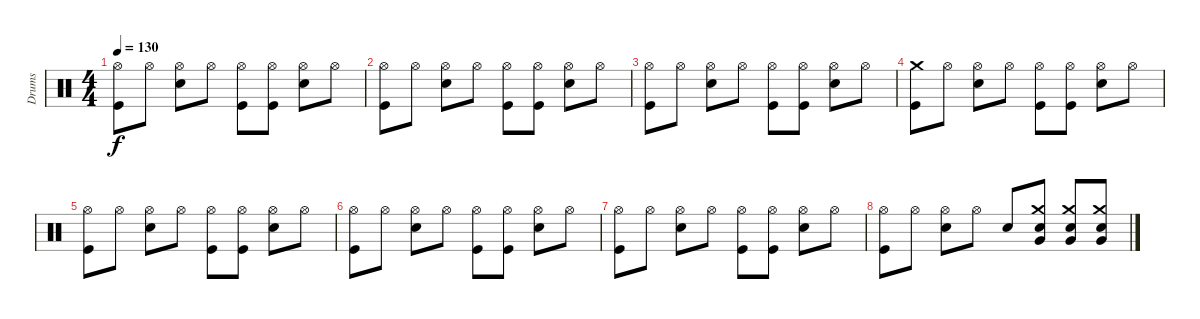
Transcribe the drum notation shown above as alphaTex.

\track ("Drums" "Drums") {instrument percussion}
\staff {score}
\articulation defaults
\ts (4 4)
\tempo 130
\clef neutral
\ks c
("Hi-Hat (open)" "Kick (hit)").8{dy f} "Hi-Hat (open)".8 ("Hi-Hat (open)" "Snare (hit) 2").8 "Hi-Hat (open)".8 ("Hi-Hat (open)" "Kick (hit)").8 ("Hi-Hat (open)" "Kick (hit)").8 ("Hi-Hat (open)" "Snare (hit) 2").8 "Hi-Hat (open)".8 |
("Hi-Hat (open)" "Kick (hit)").8 "Hi-Hat (open)".8 ("Hi-Hat (open)" "Snare (hit) 2").8 "Hi-Hat (open)".8 ("Hi-Hat (open)" "Kick (hit)").8 ("Hi-Hat (open)" "Kick (hit)").8 ("Hi-Hat (open)" "Snare (hit) 2").8 "Hi-Hat (open)".8 |
("Hi-Hat (open)" "Kick (hit)").8 "Hi-Hat (open)".8 ("Hi-Hat (open)" "Snare (hit) 2").8 "Hi-Hat (open)".8 ("Hi-Hat (open)" "Kick (hit)").8 ("Hi-Hat (open)" "Kick (hit)").8 ("Hi-Hat (open)" "Snare (hit) 2").8 "Hi-Hat (open)".8 |
("Crash medium (hit)" "Kick (hit)").8 "Hi-Hat (open)".8 ("Hi-Hat (open)" "Snare (hit) 2").8 "Hi-Hat (open)".8 ("Hi-Hat (open)" "Kick (hit)").8 ("Hi-Hat (open)" "Kick (hit)").8 ("Hi-Hat (open)" "Snare (hit) 2").8 "Hi-Hat (open)".8 |
("Hi-Hat (open)" "Kick (hit)").8 "Hi-Hat (open)".8 ("Hi-Hat (open)" "Snare (hit) 2").8 "Hi-Hat (open)".8 ("Hi-Hat (open)" "Kick (hit)").8 ("Hi-Hat (open)" "Kick (hit)").8 ("Hi-Hat (open)" "Snare (hit) 2").8 "Hi-Hat (open)".8 |
("Hi-Hat (open)" "Kick (hit)").8 "Hi-Hat (open)".8 ("Hi-Hat (open)" "Snare (hit) 2").8 "Hi-Hat (open)".8 ("Hi-Hat (open)" "Kick (hit)").8 ("Hi-Hat (open)" "Kick (hit)").8 ("Hi-Hat (open)" "Snare (hit) 2").8 "Hi-Hat (open)".8 |
("Hi-Hat (open)" "Kick (hit)").8 "Hi-Hat (open)".8 ("Hi-Hat (open)" "Snare (hit) 2").8 "Hi-Hat (open)".8 ("Hi-Hat (open)" "Kick (hit)").8 ("Hi-Hat (open)" "Kick (hit)").8 ("Hi-Hat (open)" "Snare (hit) 2").8 "Hi-Hat (open)".8 |
("Hi-Hat (open)" "Kick (hit)").8 "Hi-Hat (open)".8 ("Hi-Hat (open)" "Snare (hit) 2").8 "Hi-Hat (open)".8 "Snare (hit) 2".8 ("Snare (hit) 2" "Very Low Tom (hit)" "Crash medium (hit)").8 ("Snare (hit) 2" "Very Low Tom (hit)" "Crash medium (hit)").8 ("Snare (hit) 2" "Very Low Tom (hit)" "Crash medium (hit)").8
